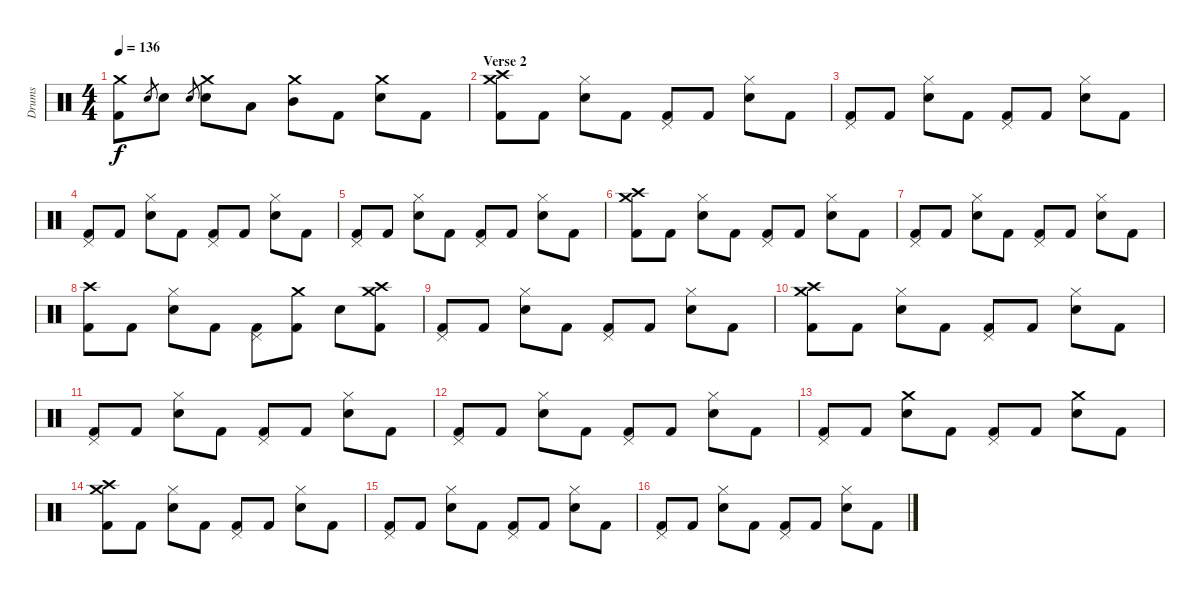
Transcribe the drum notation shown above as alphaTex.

\track ("Drums" "Drums") {instrument percussion}
\staff {score}
\articulation defaults
\ts (4 4)
\tempo 136
\clef neutral
\ks c
("Crash medium (hit)" "Kick (hit) 2").8{dy f} "Electric Snare (hit)".8{gr} "Electric Snare (hit)".8 "Electric Snare (hit)".8{gr} ("Crash medium (hit)" "Electric Snare (hit)").8 "Low Tom (hit)".8 ("Crash medium (hit)" "Mid Tom (hit)").8 "Kick (hit) 2".8 ("Crash medium (hit)" "Electric Snare (hit)").8 "Kick (hit) 2".8 |
\section ("" "Verse 2")
("Crash medium (hit)" "Crash high (hit)" "Kick (hit) 2").8 "Kick (hit) 2".8 ("Hi-Hat (closed)" "Electric Snare (hit)").8 "Kick (hit) 2".8 ("Pedal Hi-Hat (hit)" "Kick (hit) 2").8 "Kick (hit) 2".8 ("Hi-Hat (closed)" "Electric Snare (hit)").8 "Kick (hit) 2".8 |
("Pedal Hi-Hat (hit)" "Kick (hit) 2").8 "Kick (hit) 2".8 ("Hi-Hat (closed)" "Electric Snare (hit)").8 "Kick (hit) 2".8 ("Pedal Hi-Hat (hit)" "Kick (hit) 2").8 "Kick (hit) 2".8 ("Hi-Hat (closed)" "Electric Snare (hit)").8 "Kick (hit) 2".8 |
("Pedal Hi-Hat (hit)" "Kick (hit) 2").8 "Kick (hit) 2".8 ("Hi-Hat (closed)" "Electric Snare (hit)").8 "Kick (hit) 2".8 ("Pedal Hi-Hat (hit)" "Kick (hit) 2").8 "Kick (hit) 2".8 ("Hi-Hat (closed)" "Electric Snare (hit)").8 "Kick (hit) 2".8 |
("Pedal Hi-Hat (hit)" "Kick (hit) 2").8 "Kick (hit) 2".8 ("Hi-Hat (closed)" "Electric Snare (hit)").8 "Kick (hit) 2".8 ("Pedal Hi-Hat (hit)" "Kick (hit) 2").8 "Kick (hit) 2".8 ("Hi-Hat (closed)" "Electric Snare (hit)").8 "Kick (hit) 2".8 |
("Crash medium (hit)" "Crash high (hit)" "Kick (hit) 2").8 "Kick (hit) 2".8 ("Hi-Hat (closed)" "Electric Snare (hit)").8 "Kick (hit) 2".8 ("Pedal Hi-Hat (hit)" "Kick (hit) 2").8 "Kick (hit) 2".8 ("Hi-Hat (closed)" "Electric Snare (hit)").8 "Kick (hit) 2".8 |
("Pedal Hi-Hat (hit)" "Kick (hit) 2").8 "Kick (hit) 2".8 ("Hi-Hat (closed)" "Electric Snare (hit)").8 "Kick (hit) 2".8 ("Pedal Hi-Hat (hit)" "Kick (hit) 2").8 "Kick (hit) 2".8 ("Hi-Hat (closed)" "Electric Snare (hit)").8 "Kick (hit) 2".8 |
("Crash high (hit)" "Kick (hit) 2").8 "Kick (hit) 2".8 ("Hi-Hat (closed)" "Electric Snare (hit)").8 "Kick (hit) 2".8 ("Pedal Hi-Hat (hit)" "Kick (hit) 2").8 ("Crash medium (hit)" "Kick (hit) 2").8 "Electric Snare (hit)".8 ("Crash medium (hit)" "Crash high (hit)" "Kick (hit) 2").8 |
("Pedal Hi-Hat (hit)" "Kick (hit) 2").8 "Kick (hit) 2".8 ("Hi-Hat (closed)" "Electric Snare (hit)").8 "Kick (hit) 2".8 ("Pedal Hi-Hat (hit)" "Kick (hit) 2").8 "Kick (hit) 2".8 ("Hi-Hat (closed)" "Electric Snare (hit)").8 "Kick (hit) 2".8 |
("Crash medium (hit)" "Crash high (hit)" "Kick (hit) 2").8 "Kick (hit) 2".8 ("Hi-Hat (closed)" "Electric Snare (hit)").8 "Kick (hit) 2".8 ("Pedal Hi-Hat (hit)" "Kick (hit) 2").8 "Kick (hit) 2".8 ("Hi-Hat (closed)" "Electric Snare (hit)").8 "Kick (hit) 2".8 |
("Pedal Hi-Hat (hit)" "Kick (hit) 2").8 "Kick (hit) 2".8 ("Hi-Hat (closed)" "Electric Snare (hit)").8 "Kick (hit) 2".8 ("Pedal Hi-Hat (hit)" "Kick (hit) 2").8 "Kick (hit) 2".8 ("Hi-Hat (closed)" "Electric Snare (hit)").8 "Kick (hit) 2".8 |
("Pedal Hi-Hat (hit)" "Kick (hit) 2").8 "Kick (hit) 2".8 ("Hi-Hat (closed)" "Electric Snare (hit)").8 "Kick (hit) 2".8 ("Pedal Hi-Hat (hit)" "Kick (hit) 2").8 "Kick (hit) 2".8 ("Hi-Hat (closed)" "Electric Snare (hit)").8 "Kick (hit) 2".8 |
("Pedal Hi-Hat (hit)" "Kick (hit) 2").8 "Kick (hit) 2".8 ("Crash medium (hit)" "Electric Snare (hit)").8 "Kick (hit) 2".8 ("Pedal Hi-Hat (hit)" "Kick (hit) 2").8 "Kick (hit) 2".8 ("Crash medium (hit)" "Electric Snare (hit)").8 "Kick (hit) 2".8 |
("Crash medium (hit)" "Crash high (hit)" "Kick (hit) 2").8 "Kick (hit) 2".8 ("Hi-Hat (closed)" "Electric Snare (hit)").8 "Kick (hit) 2".8 ("Pedal Hi-Hat (hit)" "Kick (hit) 2").8 "Kick (hit) 2".8 ("Hi-Hat (closed)" "Electric Snare (hit)").8 "Kick (hit) 2".8 |
("Pedal Hi-Hat (hit)" "Kick (hit) 2").8 "Kick (hit) 2".8 ("Hi-Hat (closed)" "Electric Snare (hit)").8 "Kick (hit) 2".8 ("Pedal Hi-Hat (hit)" "Kick (hit) 2").8 "Kick (hit) 2".8 ("Hi-Hat (closed)" "Electric Snare (hit)").8 "Kick (hit) 2".8 |
("Pedal Hi-Hat (hit)" "Kick (hit) 2").8 "Kick (hit) 2".8 ("Hi-Hat (closed)" "Electric Snare (hit)").8 "Kick (hit) 2".8 ("Pedal Hi-Hat (hit)" "Kick (hit) 2").8 "Kick (hit) 2".8 ("Hi-Hat (closed)" "Electric Snare (hit)").8 "Kick (hit) 2".8
